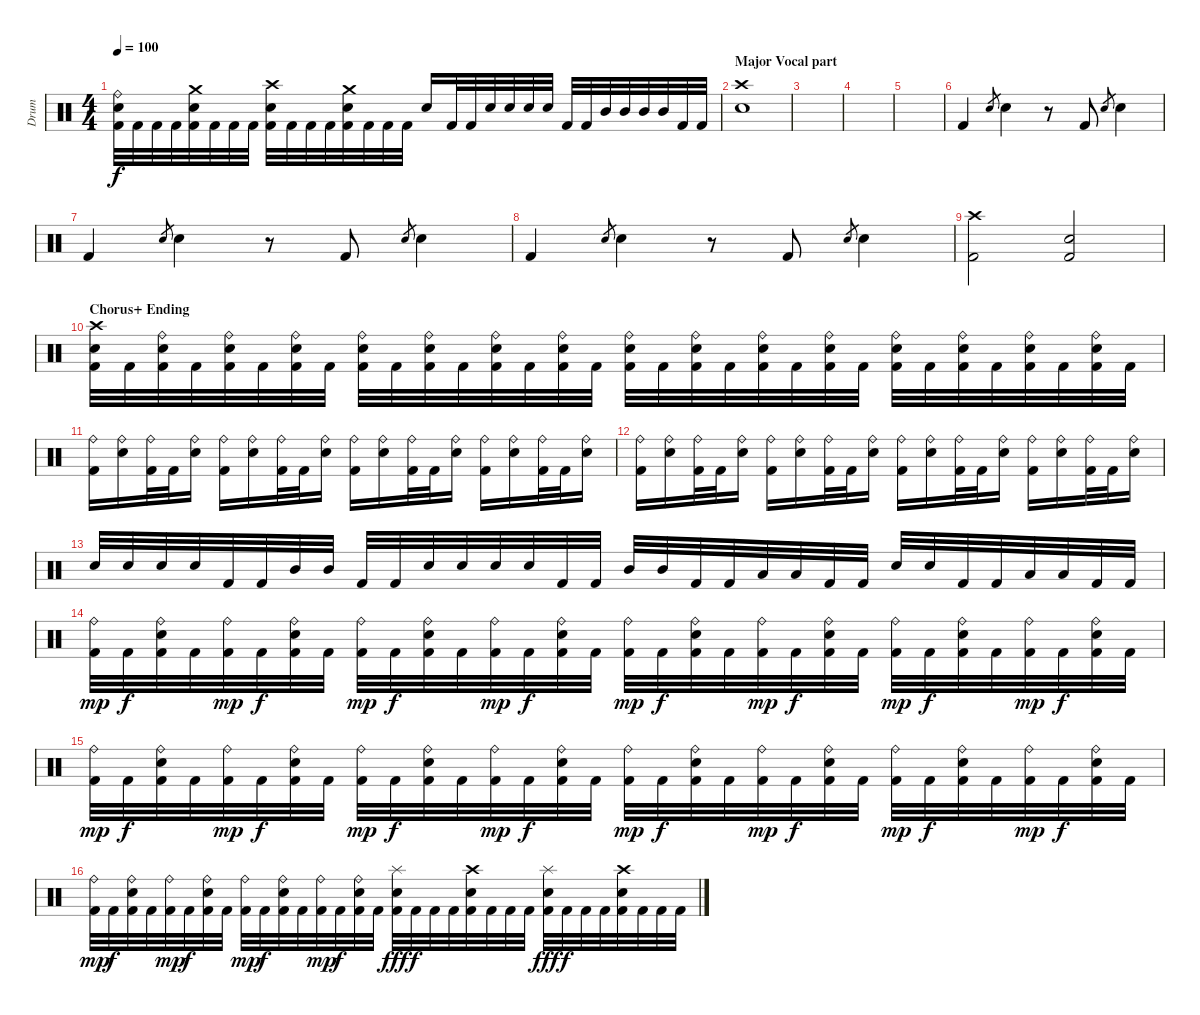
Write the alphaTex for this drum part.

\track ("Drum" "Drum") {instrument percussion}
\staff {score}
\articulation defaults
\ts (4 4)
\tempo 100
\clef neutral
\ks c
("Ride (bell)" "Snare (hit) 2" "Kick (hit) 2").32{dy f} "Kick (hit) 2".32 "Kick (hit) 2".32 "Kick (hit) 2".32 ("Crash medium (hit)" "Snare (hit) 2" "Kick (hit) 2").32 "Kick (hit) 2".32 "Kick (hit) 2".32 "Kick (hit) 2".32 ("Crash high (hit)" "Snare (hit) 2" "Kick (hit) 2").32 "Kick (hit) 2".32 "Kick (hit) 2".32 "Kick (hit) 2".32 ("Crash medium (hit)" "Snare (hit) 2" "Kick (hit) 2").32 "Kick (hit) 2".32 "Kick (hit) 2".32 "Kick (hit) 2".32 "Snare (hit) 2".16 "Kick (hit) 2".32 "Kick (hit) 2".32 "Snare (hit) 2".32 "Snare (hit) 2".32 "Snare (hit) 2".32 "Snare (hit) 2".32 "Kick (hit) 2".32 "Kick (hit) 2".32 "Mid Tom (hit)".32 "Mid Tom (hit)".32 "Mid Tom (hit)".32 "Mid Tom (hit)".32 "Kick (hit) 2".32 "Kick (hit) 2".32 |
\section ("" "Major Vocal part")
("Crash high (hit)" "Snare (hit) 2").1 |
|
|
|
"Kick (hit) 2".4 "Snare (hit) 2".8{gr} "Snare (hit) 2".4 r.8 "Kick (hit) 2".8 "Snare (hit) 2".8{gr} "Snare (hit) 2".4 |
"Kick (hit) 2".4 "Snare (hit) 2".8{gr} "Snare (hit) 2".4 r.8 "Kick (hit) 2".8 "Snare (hit) 2".8{gr} "Snare (hit) 2".4 |
"Kick (hit) 2".4 "Snare (hit) 2".8{gr} "Snare (hit) 2".4 r.8 "Kick (hit) 2".8 "Snare (hit) 2".8{gr} "Snare (hit) 2".4 |
("Crash high (hit)" "Kick (hit) 2").2 ("Snare (hit) 2" "Kick (hit) 2").2 |
\section ("" "Chorus+ Ending")
("Crash high (hit)" "Snare (hit) 2" "Kick (hit) 2").32 "Kick (hit) 2".32 ("Ride (bell)" "Snare (hit) 2" "Kick (hit) 2").32 "Kick (hit) 2".32 ("Ride (bell)" "Snare (hit) 2" "Kick (hit) 2").32 "Kick (hit) 2".32 ("Ride (bell)" "Snare (hit) 2" "Kick (hit) 2").32 "Kick (hit) 2".32 ("Ride (bell)" "Snare (hit) 2" "Kick (hit) 2").32 "Kick (hit) 2".32 ("Ride (bell)" "Snare (hit) 2" "Kick (hit) 2").32 "Kick (hit) 2".32 ("Ride (bell)" "Snare (hit) 2" "Kick (hit) 2").32 "Kick (hit) 2".32 ("Ride (bell)" "Snare (hit) 2" "Kick (hit) 2").32 "Kick (hit) 2".32 ("Ride (bell)" "Snare (hit) 2" "Kick (hit) 2").32 "Kick (hit) 2".32 ("Ride (bell)" "Snare (hit) 2" "Kick (hit) 2").32 "Kick (hit) 2".32 ("Ride (bell)" "Snare (hit) 2" "Kick (hit) 2").32 "Kick (hit) 2".32 ("Ride (bell)" "Snare (hit) 2" "Kick (hit) 2").32 "Kick (hit) 2".32 ("Ride (bell)" "Snare (hit) 2" "Kick (hit) 2").32 "Kick (hit) 2".32 ("Ride (bell)" "Snare (hit) 2" "Kick (hit) 2").32 "Kick (hit) 2".32 ("Ride (bell)" "Snare (hit) 2" "Kick (hit) 2").32 "Kick (hit) 2".32 ("Ride (bell)" "Snare (hit) 2" "Kick (hit) 2").32 "Kick (hit) 2".32 |
("Ride (bell)" "Kick (hit) 2").16 ("Ride (bell)" "Snare (hit) 2").16 ("Ride (bell)" "Kick (hit) 2").32 "Kick (hit) 2".32 ("Ride (bell)" "Snare (hit) 2").16 ("Ride (bell)" "Kick (hit) 2").16 ("Ride (bell)" "Snare (hit) 2").16 ("Ride (bell)" "Kick (hit) 2").32 "Kick (hit) 2".32 ("Ride (bell)" "Snare (hit) 2").16 ("Ride (bell)" "Kick (hit) 2").16 ("Ride (bell)" "Snare (hit) 2").16 ("Ride (bell)" "Kick (hit) 2").32 "Kick (hit) 2".32 ("Ride (bell)" "Snare (hit) 2").16 ("Ride (bell)" "Kick (hit) 2").16 ("Ride (bell)" "Snare (hit) 2").16 ("Ride (bell)" "Kick (hit) 2").32 "Kick (hit) 2".32 ("Ride (bell)" "Snare (hit) 2").16 |
("Ride (bell)" "Kick (hit) 2").16 ("Ride (bell)" "Snare (hit) 2").16 ("Ride (bell)" "Kick (hit) 2").32 "Kick (hit) 2".32 ("Ride (bell)" "Snare (hit) 2").16 ("Ride (bell)" "Kick (hit) 2").16 ("Ride (bell)" "Snare (hit) 2").16 ("Ride (bell)" "Kick (hit) 2").32 "Kick (hit) 2".32 ("Ride (bell)" "Snare (hit) 2").16 ("Ride (bell)" "Kick (hit) 2").16 ("Ride (bell)" "Snare (hit) 2").16 ("Ride (bell)" "Kick (hit) 2").32 "Kick (hit) 2".32 ("Ride (bell)" "Snare (hit) 2").16 ("Ride (bell)" "Kick (hit) 2").16 ("Ride (bell)" "Snare (hit) 2").16 ("Ride (bell)" "Kick (hit) 2").32 "Kick (hit) 2".32 ("Ride (bell)" "Snare (hit) 2").16 |
"Snare (hit) 2".32 "Snare (hit) 2".32 "Snare (hit) 2".32 "Snare (hit) 2".32 "Kick (hit) 2".32 "Kick (hit) 2".32 "Mid Tom (hit)".32 "Mid Tom (hit)".32 "Kick (hit) 2".32 "Kick (hit) 2".32 "Snare (hit) 2".32 "Snare (hit) 2".32 "Snare (hit) 2".32 "Snare (hit) 2".32 "Kick (hit) 2".32 "Kick (hit) 2".32 "Mid Tom (hit)".32 "Mid Tom (hit)".32 "Kick (hit) 2".32 "Kick (hit) 2".32 "Low Tom (hit)".32 "Low Tom (hit)".32 "Kick (hit) 2".32 "Kick (hit) 2".32 "Snare (hit) 2".32 "Snare (hit) 2".32 "Kick (hit) 2".32 "Kick (hit) 2".32 "Low Tom (hit)".32 "Low Tom (hit)".32 "Kick (hit) 2".32 "Kick (hit) 2".32 |
("Ride (bell)" "Kick (hit) 2").32{dy mp} "Kick (hit) 2".32{dy f} ("Ride (bell)" "Snare (hit) 2" "Kick (hit) 2").32 "Kick (hit) 2".32 ("Ride (bell)" "Kick (hit) 2").32{dy mp} "Kick (hit) 2".32{dy f} ("Ride (bell)" "Snare (hit) 2" "Kick (hit) 2").32 "Kick (hit) 2".32 ("Ride (bell)" "Kick (hit) 2").32{dy mp} "Kick (hit) 2".32{dy f} ("Ride (bell)" "Snare (hit) 2" "Kick (hit) 2").32 "Kick (hit) 2".32 ("Ride (bell)" "Kick (hit) 2").32{dy mp} "Kick (hit) 2".32{dy f} ("Ride (bell)" "Snare (hit) 2" "Kick (hit) 2").32 "Kick (hit) 2".32 ("Ride (bell)" "Kick (hit) 2").32{dy mp} "Kick (hit) 2".32{dy f} ("Ride (bell)" "Snare (hit) 2" "Kick (hit) 2").32 "Kick (hit) 2".32 ("Ride (bell)" "Kick (hit) 2").32{dy mp} "Kick (hit) 2".32{dy f} ("Ride (bell)" "Snare (hit) 2" "Kick (hit) 2").32 "Kick (hit) 2".32 ("Ride (bell)" "Kick (hit) 2").32{dy mp} "Kick (hit) 2".32{dy f} ("Ride (bell)" "Snare (hit) 2" "Kick (hit) 2").32 "Kick (hit) 2".32 ("Ride (bell)" "Kick (hit) 2").32{dy mp} "Kick (hit) 2".32{dy f} ("Ride (bell)" "Snare (hit) 2" "Kick (hit) 2").32 "Kick (hit) 2".32 |
("Ride (bell)" "Kick (hit) 2").32{dy mp} "Kick (hit) 2".32{dy f} ("Ride (bell)" "Snare (hit) 2" "Kick (hit) 2").32 "Kick (hit) 2".32 ("Ride (bell)" "Kick (hit) 2").32{dy mp} "Kick (hit) 2".32{dy f} ("Ride (bell)" "Snare (hit) 2" "Kick (hit) 2").32 "Kick (hit) 2".32 ("Ride (bell)" "Kick (hit) 2").32{dy mp} "Kick (hit) 2".32{dy f} ("Ride (bell)" "Snare (hit) 2" "Kick (hit) 2").32 "Kick (hit) 2".32 ("Ride (bell)" "Kick (hit) 2").32{dy mp} "Kick (hit) 2".32{dy f} ("Ride (bell)" "Snare (hit) 2" "Kick (hit) 2").32 "Kick (hit) 2".32 ("Ride (bell)" "Kick (hit) 2").32{dy mp} "Kick (hit) 2".32{dy f} ("Ride (bell)" "Snare (hit) 2" "Kick (hit) 2").32 "Kick (hit) 2".32 ("Ride (bell)" "Kick (hit) 2").32{dy mp} "Kick (hit) 2".32{dy f} ("Ride (bell)" "Snare (hit) 2" "Kick (hit) 2").32 "Kick (hit) 2".32 ("Ride (bell)" "Kick (hit) 2").32{dy mp} "Kick (hit) 2".32{dy f} ("Ride (bell)" "Snare (hit) 2" "Kick (hit) 2").32 "Kick (hit) 2".32 ("Ride (bell)" "Kick (hit) 2").32{dy mp} "Kick (hit) 2".32{dy f} ("Ride (bell)" "Snare (hit) 2" "Kick (hit) 2").32 "Kick (hit) 2".32 |
("Ride (bell)" "Kick (hit) 2").32{dy mp} "Kick (hit) 2".32{dy f} ("Ride (bell)" "Snare (hit) 2" "Kick (hit) 2").32 "Kick (hit) 2".32 ("Ride (bell)" "Kick (hit) 2").32{dy mp} "Kick (hit) 2".32{dy f} ("Ride (bell)" "Snare (hit) 2" "Kick (hit) 2").32 "Kick (hit) 2".32 ("Ride (bell)" "Kick (hit) 2").32{dy mp} "Kick (hit) 2".32{dy f} ("Ride (bell)" "Snare (hit) 2" "Kick (hit) 2").32 "Kick (hit) 2".32 ("Ride (bell)" "Kick (hit) 2").32{dy mp} "Kick (hit) 2".32{dy f} ("Ride (bell)" "Snare (hit) 2" "Kick (hit) 2").32 "Kick (hit) 2".32 ("Splash (hit)" "Snare (hit) 2" "Kick (hit) 2").32{dy fff} "Kick (hit) 2".32{dy f} "Kick (hit) 2".32 "Kick (hit) 2".32 ("Crash high (hit)" "Snare (hit) 2" "Kick (hit) 2").32 "Kick (hit) 2".32 "Kick (hit) 2".32 "Kick (hit) 2".32 ("Splash (hit)" "Snare (hit) 2" "Kick (hit) 2").32{dy fff} "Kick (hit) 2".32{dy f} "Kick (hit) 2".32 "Kick (hit) 2".32 ("Crash high (hit)" "Snare (hit) 2" "Kick (hit) 2").32 "Kick (hit) 2".32 "Kick (hit) 2".32 "Kick (hit) 2".32
